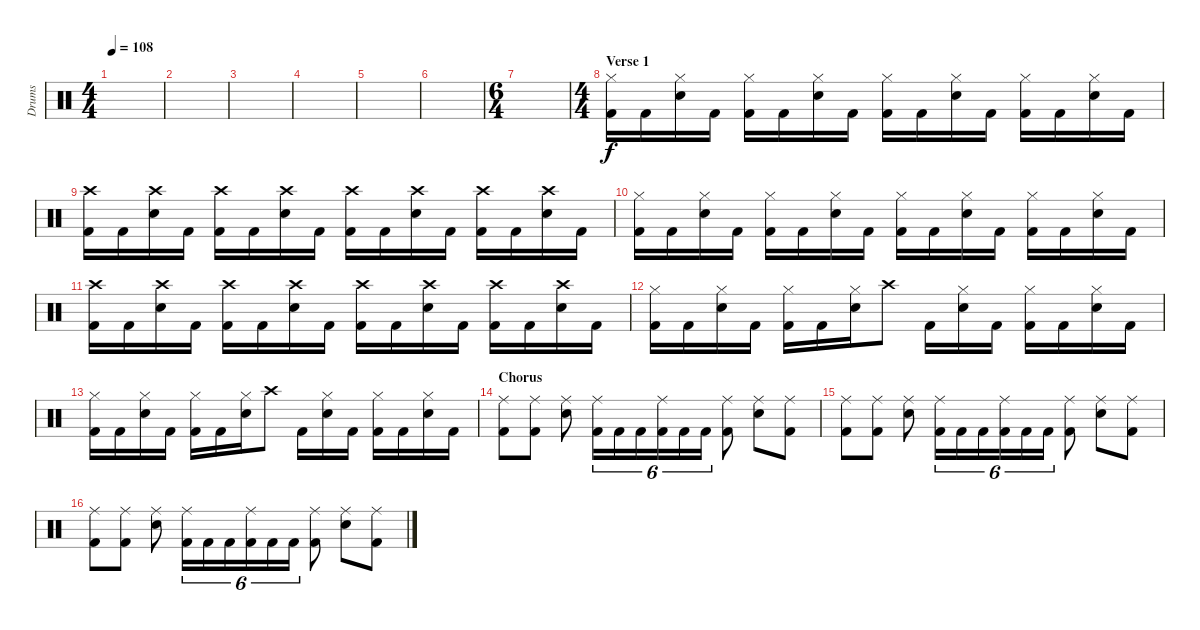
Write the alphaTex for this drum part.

\track ("Drums" "Drums") {instrument percussion}
\staff {score}
\articulation defaults
\ts (4 4)
\tempo 108
\clef neutral
\ks c
|
|
|
|
|
|
\ts (6 4)
|
\ts (4 4)
\section ("" "Verse 1")
("Hi-Hat (closed)" "Kick (hit) 2").16 "Kick (hit) 2".16 ("Hi-Hat (closed)" "Electric Snare (hit)").16 "Kick (hit) 2".16 ("Hi-Hat (closed)" "Kick (hit) 2").16 "Kick (hit) 2".16 ("Hi-Hat (closed)" "Electric Snare (hit)").16 "Kick (hit) 2".16 ("Hi-Hat (closed)" "Kick (hit) 2").16 "Kick (hit) 2".16 ("Hi-Hat (closed)" "Electric Snare (hit)").16 "Kick (hit) 2".16 ("Hi-Hat (closed)" "Kick (hit) 2").16 "Kick (hit) 2".16 ("Hi-Hat (closed)" "Electric Snare (hit)").16 "Kick (hit) 2".16 |
("Crash high (hit)" "Kick (hit) 2").16 "Kick (hit) 2".16 ("Crash high (hit)" "Electric Snare (hit)").16 "Kick (hit) 2".16 ("Crash high (hit)" "Kick (hit) 2").16 "Kick (hit) 2".16 ("Crash high (hit)" "Electric Snare (hit)").16 "Kick (hit) 2".16 ("Crash high (hit)" "Kick (hit) 2").16 "Kick (hit) 2".16 ("Crash high (hit)" "Electric Snare (hit)").16 "Kick (hit) 2".16 ("Crash high (hit)" "Kick (hit) 2").16 "Kick (hit) 2".16 ("Crash high (hit)" "Electric Snare (hit)").16 "Kick (hit) 2".16 |
("Hi-Hat (closed)" "Kick (hit) 2").16 "Kick (hit) 2".16 ("Hi-Hat (closed)" "Electric Snare (hit)").16 "Kick (hit) 2".16 ("Hi-Hat (closed)" "Kick (hit) 2").16 "Kick (hit) 2".16 ("Hi-Hat (closed)" "Electric Snare (hit)").16 "Kick (hit) 2".16 ("Hi-Hat (closed)" "Kick (hit) 2").16 "Kick (hit) 2".16 ("Hi-Hat (closed)" "Electric Snare (hit)").16 "Kick (hit) 2".16 ("Hi-Hat (closed)" "Kick (hit) 2").16 "Kick (hit) 2".16 ("Hi-Hat (closed)" "Electric Snare (hit)").16 "Kick (hit) 2".16 |
("Crash high (hit)" "Kick (hit) 2").16 "Kick (hit) 2".16 ("Crash high (hit)" "Electric Snare (hit)").16 "Kick (hit) 2".16 ("Crash high (hit)" "Kick (hit) 2").16 "Kick (hit) 2".16 ("Crash high (hit)" "Electric Snare (hit)").16 "Kick (hit) 2".16 ("Crash high (hit)" "Kick (hit) 2").16 "Kick (hit) 2".16 ("Crash high (hit)" "Electric Snare (hit)").16 "Kick (hit) 2".16 ("Crash high (hit)" "Kick (hit) 2").16 "Kick (hit) 2".16 ("Crash high (hit)" "Electric Snare (hit)").16 "Kick (hit) 2".16 |
("Hi-Hat (closed)" "Kick (hit) 2").16 "Kick (hit) 2".16 ("Hi-Hat (closed)" "Electric Snare (hit)").16 "Kick (hit) 2".16 ("Hi-Hat (closed)" "Kick (hit) 2").16 "Kick (hit) 2".16 ("Hi-Hat (closed)" "Electric Snare (hit)").16 "Crash high (hit)".8 "Kick (hit) 2".16 ("Hi-Hat (closed)" "Electric Snare (hit)").16 "Kick (hit) 2".16 ("Hi-Hat (closed)" "Kick (hit) 2").16 "Kick (hit) 2".16 ("Hi-Hat (closed)" "Electric Snare (hit)").16 "Kick (hit) 2".16 |
("Hi-Hat (closed)" "Kick (hit) 2").16 "Kick (hit) 2".16 ("Hi-Hat (closed)" "Electric Snare (hit)").16 "Kick (hit) 2".16 ("Hi-Hat (closed)" "Kick (hit) 2").16 "Kick (hit) 2".16 ("Hi-Hat (closed)" "Electric Snare (hit)").16 "Crash high (hit)".8 "Kick (hit) 2".16 ("Hi-Hat (closed)" "Electric Snare (hit)").16 "Kick (hit) 2".16 ("Hi-Hat (closed)" "Kick (hit) 2").16 "Kick (hit) 2".16 ("Hi-Hat (closed)" "Electric Snare (hit)").16 "Kick (hit) 2".16 |
\section ("" "Chorus")
("Ride (middle)" "Kick (hit) 2").8 ("Ride (middle)" "Kick (hit) 2").8 ("Ride (middle)" "Electric Snare (hit)").8 ("Ride (middle)" "Kick (hit) 2").16{tu (6 4)} "Kick (hit) 2".16{tu (6 4)} "Kick (hit) 2".16{tu (6 4)} ("Ride (middle)" "Kick (hit) 2").16{tu (6 4)} "Kick (hit) 2".16{tu (6 4)} "Kick (hit) 2".16{tu (6 4)} ("Ride (middle)" "Kick (hit) 2").8 ("Ride (middle)" "Electric Snare (hit)").8 ("Ride (middle)" "Kick (hit) 2").8 |
("Ride (middle)" "Kick (hit) 2").8 ("Ride (middle)" "Kick (hit) 2").8 ("Ride (middle)" "Electric Snare (hit)").8 ("Ride (middle)" "Kick (hit) 2").16{tu (6 4)} "Kick (hit) 2".16{tu (6 4)} "Kick (hit) 2".16{tu (6 4)} ("Ride (middle)" "Kick (hit) 2").16{tu (6 4)} "Kick (hit) 2".16{tu (6 4)} "Kick (hit) 2".16{tu (6 4)} ("Ride (middle)" "Kick (hit) 2").8 ("Ride (middle)" "Electric Snare (hit)").8 ("Ride (middle)" "Kick (hit) 2").8 |
("Ride (middle)" "Kick (hit) 2").8 ("Ride (middle)" "Kick (hit) 2").8 ("Ride (middle)" "Electric Snare (hit)").8 ("Ride (middle)" "Kick (hit) 2").16{tu (6 4)} "Kick (hit) 2".16{tu (6 4)} "Kick (hit) 2".16{tu (6 4)} ("Ride (middle)" "Kick (hit) 2").16{tu (6 4)} "Kick (hit) 2".16{tu (6 4)} "Kick (hit) 2".16{tu (6 4)} ("Ride (middle)" "Kick (hit) 2").8 ("Ride (middle)" "Electric Snare (hit)").8 ("Ride (middle)" "Kick (hit) 2").8
